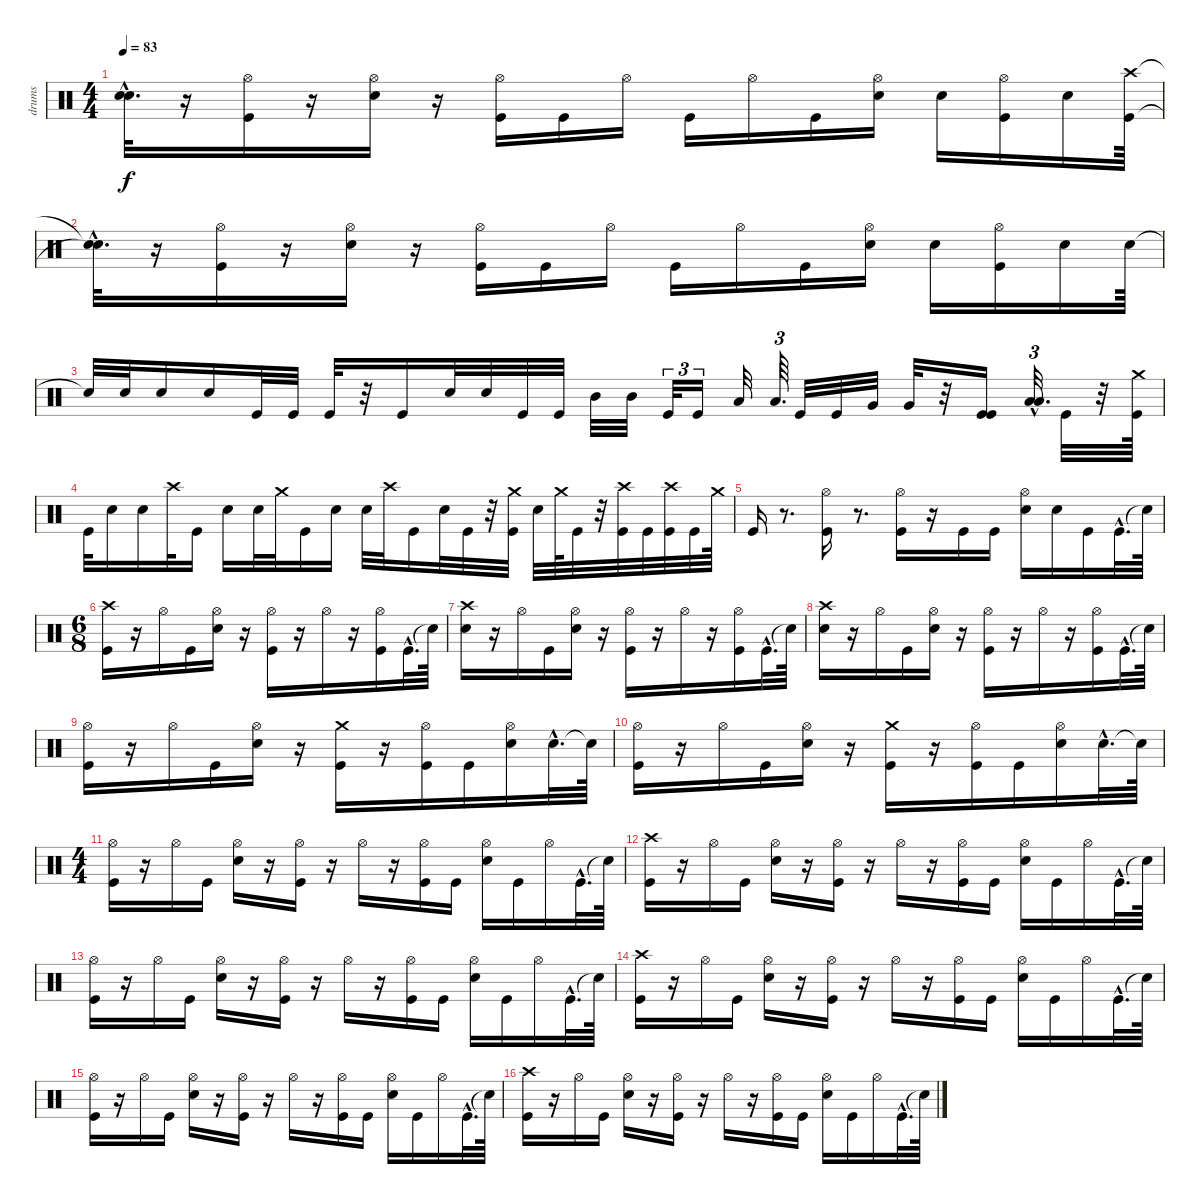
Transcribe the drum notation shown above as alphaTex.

\track ("drums" "drums") {instrument percussion}
\staff {score}
\articulation defaults
\ts (4 4)
\tempo 83
\clef neutral
\ks c
("Snare (hit)"{hac t} "Snare (hit)"{hac t}).32{d dy f} r.16 ("Hi-Hat (open)" "Kick (hit)").16 r.16 ("Hi-Hat (open)" "Electric Snare (hit)").16 r.16 ("Hi-Hat (open)" "Kick (hit)").16 "Kick (hit)".16 "Hi-Hat (open)".16 "Kick (hit)".16 "Hi-Hat (open)".16 "Kick (hit)".16 ("Hi-Hat (open)" "Electric Snare (hit)").16 "Electric Snare (hit)".16 ("Hi-Hat (open)" "Kick (hit)").16 "Electric Snare (hit)".16 ("Crash high (hit)" "Kick (hit)").64 |
("Snare (hit)"{hac t} "Snare (hit)"{hac t}).32{d} r.16 ("Hi-Hat (open)" "Kick (hit)").16 r.16 ("Hi-Hat (open)" "Electric Snare (hit)").16 r.16 ("Hi-Hat (open)" "Kick (hit)").16 "Kick (hit)".16 "Hi-Hat (open)".16 "Kick (hit)".16 "Hi-Hat (open)".16 "Kick (hit)".16 ("Hi-Hat (open)" "Electric Snare (hit)").16 "Electric Snare (hit)".16 ("Hi-Hat (open)" "Kick (hit)").16 "Electric Snare (hit)".16 "Electric Snare (hit)".64 |
"Snare (hit)"{t}.32 "Electric Snare (hit)".32 "Electric Snare (hit)".16 "Electric Snare (hit)".16 "Kick (hit)".32 "Kick (hit)".32 "Kick (hit)".32 r.32 "Kick (hit)".16 "Electric Snare (hit)".32 "Electric Snare (hit)".32 "Kick (hit)".32 "Kick (hit)".32 "Mid Tom (hit)".32 "Mid Tom (hit)".32 "Kick (hit)".32{tu (3 2)} "Kick (hit)".16{tu (3 2)} "Low Tom (hit)".32 "Low Tom (hit)".64{d tu (3 2)} "Kick (hit)".32 "Kick (hit)".32 "Very Low Tom (hit)".32 "Very Low Tom (hit)".32 r.32 ("Kick (hit)" "Kick (hit)").16 ("Low Floor Tom (hit)"{hac} "Low Floor Tom (hit)").32{d tu (3 2)} "Kick (hit)".32 r.32 ("Kick (hit)" "Crash medium (hit)").64 |
"Kick (hit)".32 "Electric Snare (hit)".16 "Electric Snare (hit)".16 "Crash high (hit)".32 "Kick (hit)".16 "Electric Snare (hit)".16 "Electric Snare (hit)".32 "Crash medium (hit)".32 "Kick (hit)".16 "Electric Snare (hit)".16 "Electric Snare (hit)".32 "Crash high (hit)".32 "Kick (hit)".16 "Electric Snare (hit)".32 "Kick (hit)".32 r.32 ("Kick (hit)" "Crash medium (hit)").32 "Electric Snare (hit)".32 "Crash medium (hit)".64 "Kick (hit)".32 r.32 ("Crash high (hit)" "Kick (hit)").32 "Kick (hit)".32 ("Crash high (hit)" "Kick (hit)").32 "Kick (hit)".32 "Crash medium (hit)".64 |
"Kick (hit)".16 r.8{d} ("Hi-Hat (open)" "Kick (hit)").16 r.8{d} ("Hi-Hat (open)" "Kick (hit)").16 r.16 "Kick (hit)".16 "Kick (hit)".16 ("Hi-Hat (open)" "Electric Snare (hit)").16 "Electric Snare (hit)".16 "Kick (hit)".16 "Kick (hit)"{hac}.32{d} "Snare (hit)"{t}.64 |
\ts (6 8)
("Crash high (hit)" "Kick (hit)").16 r.16 "Hi-Hat (open)".16 "Kick (hit)".16 ("Hi-Hat (open)" "Electric Snare (hit)").16 r.16 ("Hi-Hat (open)" "Kick (hit)").16 r.16 "Hi-Hat (open)".16 r.16 ("Hi-Hat (open)" "Kick (hit)").16 "Kick (hit)"{hac}.32{d} "Snare (hit)"{t}.64 |
("Crash high (hit)" "Electric Snare (hit)").16 r.16 "Hi-Hat (open)".16 "Kick (hit)".16 ("Hi-Hat (open)" "Electric Snare (hit)").16 r.16 ("Kick (hit)" "Hi-Hat (open)").16 r.16 "Hi-Hat (open)".16 r.16 ("Kick (hit)" "Hi-Hat (open)").16 "Kick (hit)"{hac}.32{d} "Snare (hit)"{t}.64 |
("Crash high (hit)" "Electric Snare (hit)").16 r.16 "Hi-Hat (open)".16 "Kick (hit)".16 ("Hi-Hat (open)" "Electric Snare (hit)").16 r.16 ("Kick (hit)" "Hi-Hat (open)").16 r.16 "Hi-Hat (open)".16 r.16 ("Kick (hit)" "Hi-Hat (open)").16 "Kick (hit)"{hac}.32{d} "Snare (hit)"{t}.64 |
("Hi-Hat (open)" "Kick (hit)").16 r.16 "Hi-Hat (open)".16 "Kick (hit)".16 ("Hi-Hat (open)" "Electric Snare (hit)").16 r.16 ("Crash medium (hit)" "Kick (hit)").16 r.16 ("Hi-Hat (open)" "Kick (hit)").16 "Kick (hit)".16 ("Hi-Hat (open)" "Electric Snare (hit)").16 "Electric Snare (hit)"{hac}.32{d} "Snare (hit)"{t}.64 |
("Hi-Hat (open)" "Kick (hit)").16 r.16 "Hi-Hat (open)".16 "Kick (hit)".16 ("Hi-Hat (open)" "Electric Snare (hit)").16 r.16 ("Crash medium (hit)" "Kick (hit)").16 r.16 ("Hi-Hat (open)" "Kick (hit)").16 "Kick (hit)".16 ("Hi-Hat (open)" "Electric Snare (hit)").16 "Electric Snare (hit)"{hac}.32{d} "Snare (hit)"{t}.64 |
\ts (4 4)
("Hi-Hat (open)" "Kick (hit)").16 r.16 "Hi-Hat (open)".16 "Kick (hit)".16 ("Hi-Hat (open)" "Electric Snare (hit)").16 r.16 ("Hi-Hat (open)" "Kick (hit)").16 r.16 "Hi-Hat (open)".16 r.16 ("Hi-Hat (open)" "Kick (hit)").16 "Kick (hit)".16 ("Hi-Hat (open)" "Electric Snare (hit)").16 "Kick (hit)".16 "Hi-Hat (open)".16 "Kick (hit)"{hac}.32{d} "Snare (hit)"{t}.64 |
("Crash high (hit)" "Kick (hit)").16 r.16 "Hi-Hat (open)".16 "Kick (hit)".16 ("Hi-Hat (open)" "Electric Snare (hit)").16 r.16 ("Hi-Hat (open)" "Kick (hit)").16 r.16 "Hi-Hat (open)".16 r.16 ("Hi-Hat (open)" "Kick (hit)").16 "Kick (hit)".16 ("Hi-Hat (open)" "Electric Snare (hit)").16 "Kick (hit)".16 "Hi-Hat (open)".16 "Kick (hit)"{hac}.32{d} "Snare (hit)"{t}.64 |
("Hi-Hat (open)" "Kick (hit)").16 r.16 "Hi-Hat (open)".16 "Kick (hit)".16 ("Hi-Hat (open)" "Electric Snare (hit)").16 r.16 ("Hi-Hat (open)" "Kick (hit)").16 r.16 "Hi-Hat (open)".16 r.16 ("Hi-Hat (open)" "Kick (hit)").16 "Kick (hit)".16 ("Hi-Hat (open)" "Electric Snare (hit)").16 "Kick (hit)".16 "Hi-Hat (open)".16 "Kick (hit)"{hac}.32{d} "Snare (hit)"{t}.64 |
("Crash high (hit)" "Kick (hit)").16 r.16 "Hi-Hat (open)".16 "Kick (hit)".16 ("Hi-Hat (open)" "Electric Snare (hit)").16 r.16 ("Hi-Hat (open)" "Kick (hit)").16 r.16 "Hi-Hat (open)".16 r.16 ("Hi-Hat (open)" "Kick (hit)").16 "Kick (hit)".16 ("Hi-Hat (open)" "Electric Snare (hit)").16 "Kick (hit)".16 "Hi-Hat (open)".16 "Kick (hit)"{hac}.32{d} "Snare (hit)"{t}.64 |
("Hi-Hat (open)" "Kick (hit)").16 r.16 "Hi-Hat (open)".16 "Kick (hit)".16 ("Hi-Hat (open)" "Electric Snare (hit)").16 r.16 ("Hi-Hat (open)" "Kick (hit)").16 r.16 "Hi-Hat (open)".16 r.16 ("Hi-Hat (open)" "Kick (hit)").16 "Kick (hit)".16 ("Hi-Hat (open)" "Electric Snare (hit)").16 "Kick (hit)".16 "Hi-Hat (open)".16 "Kick (hit)"{hac}.32{d} "Snare (hit)"{t}.64 |
("Crash high (hit)" "Kick (hit)").16 r.16 "Hi-Hat (open)".16 "Kick (hit)".16 ("Hi-Hat (open)" "Electric Snare (hit)").16 r.16 ("Hi-Hat (open)" "Kick (hit)").16 r.16 "Hi-Hat (open)".16 r.16 ("Hi-Hat (open)" "Kick (hit)").16 "Kick (hit)".16 ("Hi-Hat (open)" "Electric Snare (hit)").16 "Kick (hit)".16 "Hi-Hat (open)".16 "Kick (hit)"{hac}.32{d} "Snare (hit)"{t}.64
